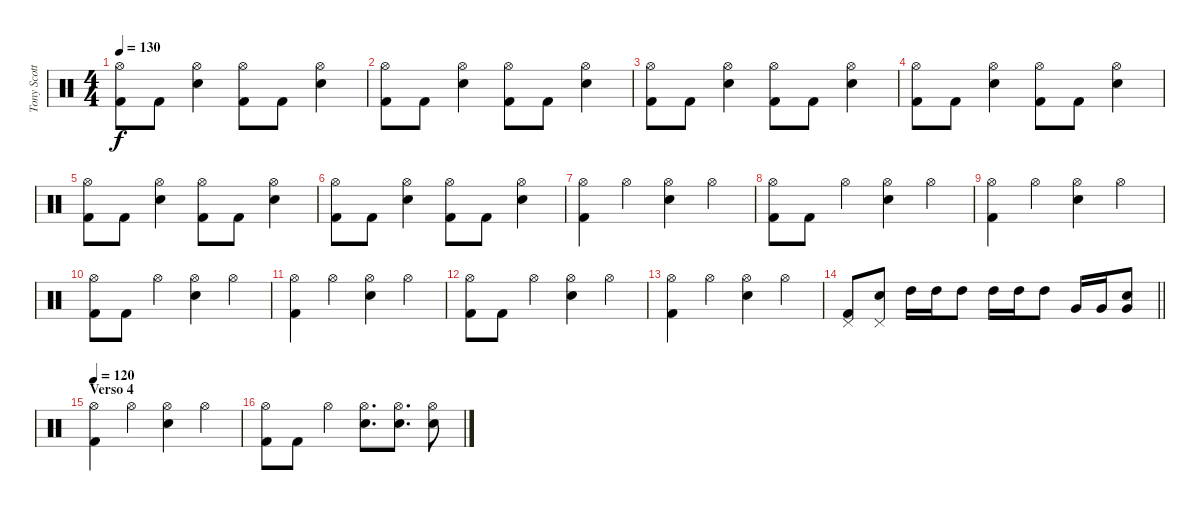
\track ("Tony Scotto" "Tony Scott") {instrument percussion}
\staff {score}
\articulation defaults
\ts (4 4)
\tempo 130
\clef neutral
\ks c
("Hi-Hat (open)" "Kick (hit) 2").8{dy f} "Kick (hit) 2".8 ("Hi-Hat (open)" "Snare (hit) 2").4 ("Hi-Hat (open)" "Kick (hit) 2").8 "Kick (hit) 2".8 ("Hi-Hat (open)" "Snare (hit) 2").4 |
("Hi-Hat (open)" "Kick (hit) 2").8 "Kick (hit) 2".8 ("Hi-Hat (open)" "Snare (hit) 2").4 ("Hi-Hat (open)" "Kick (hit) 2").8 "Kick (hit) 2".8 ("Hi-Hat (open)" "Snare (hit) 2").4 |
("Hi-Hat (open)" "Kick (hit) 2").8 "Kick (hit) 2".8 ("Hi-Hat (open)" "Snare (hit) 2").4 ("Hi-Hat (open)" "Kick (hit) 2").8 "Kick (hit) 2".8 ("Hi-Hat (open)" "Snare (hit) 2").4 |
("Hi-Hat (open)" "Kick (hit) 2").8 "Kick (hit) 2".8 ("Hi-Hat (open)" "Snare (hit) 2").4 ("Hi-Hat (open)" "Kick (hit) 2").8 "Kick (hit) 2".8 ("Hi-Hat (open)" "Snare (hit) 2").4 |
("Hi-Hat (open)" "Kick (hit) 2").8 "Kick (hit) 2".8 ("Hi-Hat (open)" "Snare (hit) 2").4 ("Hi-Hat (open)" "Kick (hit) 2").8 "Kick (hit) 2".8 ("Hi-Hat (open)" "Snare (hit) 2").4 |
("Hi-Hat (open)" "Kick (hit) 2").8 "Kick (hit) 2".8 ("Hi-Hat (open)" "Snare (hit) 2").4 ("Hi-Hat (open)" "Kick (hit) 2").8 "Kick (hit) 2".8 ("Hi-Hat (open)" "Snare (hit) 2").4 |
("Hi-Hat (open)" "Kick (hit) 2").4 "Hi-Hat (open)".4 ("Hi-Hat (open)" "Snare (hit) 2").4 "Hi-Hat (open)".4 |
("Hi-Hat (open)" "Kick (hit) 2").8 "Kick (hit) 2".8 "Hi-Hat (open)".4 ("Hi-Hat (open)" "Snare (hit) 2").4 "Hi-Hat (open)".4 |
("Hi-Hat (open)" "Kick (hit) 2").4 "Hi-Hat (open)".4 ("Hi-Hat (open)" "Snare (hit) 2").4 "Hi-Hat (open)".4 |
("Hi-Hat (open)" "Kick (hit) 2").8 "Kick (hit) 2".8 "Hi-Hat (open)".4 ("Hi-Hat (open)" "Snare (hit) 2").4 "Hi-Hat (open)".4 |
("Hi-Hat (open)" "Kick (hit) 2").4 "Hi-Hat (open)".4 ("Hi-Hat (open)" "Snare (hit) 2").4 "Hi-Hat (open)".4 |
("Hi-Hat (open)" "Kick (hit) 2").8 "Kick (hit) 2".8 "Hi-Hat (open)".4 ("Hi-Hat (open)" "Snare (hit) 2").4 "Hi-Hat (open)".4 |
("Hi-Hat (open)" "Kick (hit) 2").4 "Hi-Hat (open)".4 ("Hi-Hat (open)" "Snare (hit) 2").4 "Hi-Hat (open)".4 |
\barLineRight lightlight
("Pedal Hi-Hat (hit)" "Kick (hit) 2").8 ("Pedal Hi-Hat (hit)" "Snare (hit) 2").8 "High Tom (hit)".16 "High Tom (hit)".16 "High Tom (hit)".8 "High Tom (hit)".16 "High Tom (hit)".16 "High Tom (hit)".8 "Very Low Tom (hit)".16 "Very Low Tom (hit)".16 ("Very Low Tom (hit)" "Snare (hit) 2").8 |
\section ("" "Verso 4")
\tempo 120
("Hi-Hat (open)" "Kick (hit) 2").4 "Hi-Hat (open)".4 ("Hi-Hat (open)" "Snare (hit) 2").4 "Hi-Hat (open)".4 |
("Hi-Hat (open)" "Kick (hit) 2").8 "Kick (hit) 2".8 "Hi-Hat (open)".4 ("Hi-Hat (open)" "Snare (hit) 2").8{d} ("Hi-Hat (open)" "Snare (hit) 2").8{d} ("Hi-Hat (open)" "Snare (hit) 2").8
